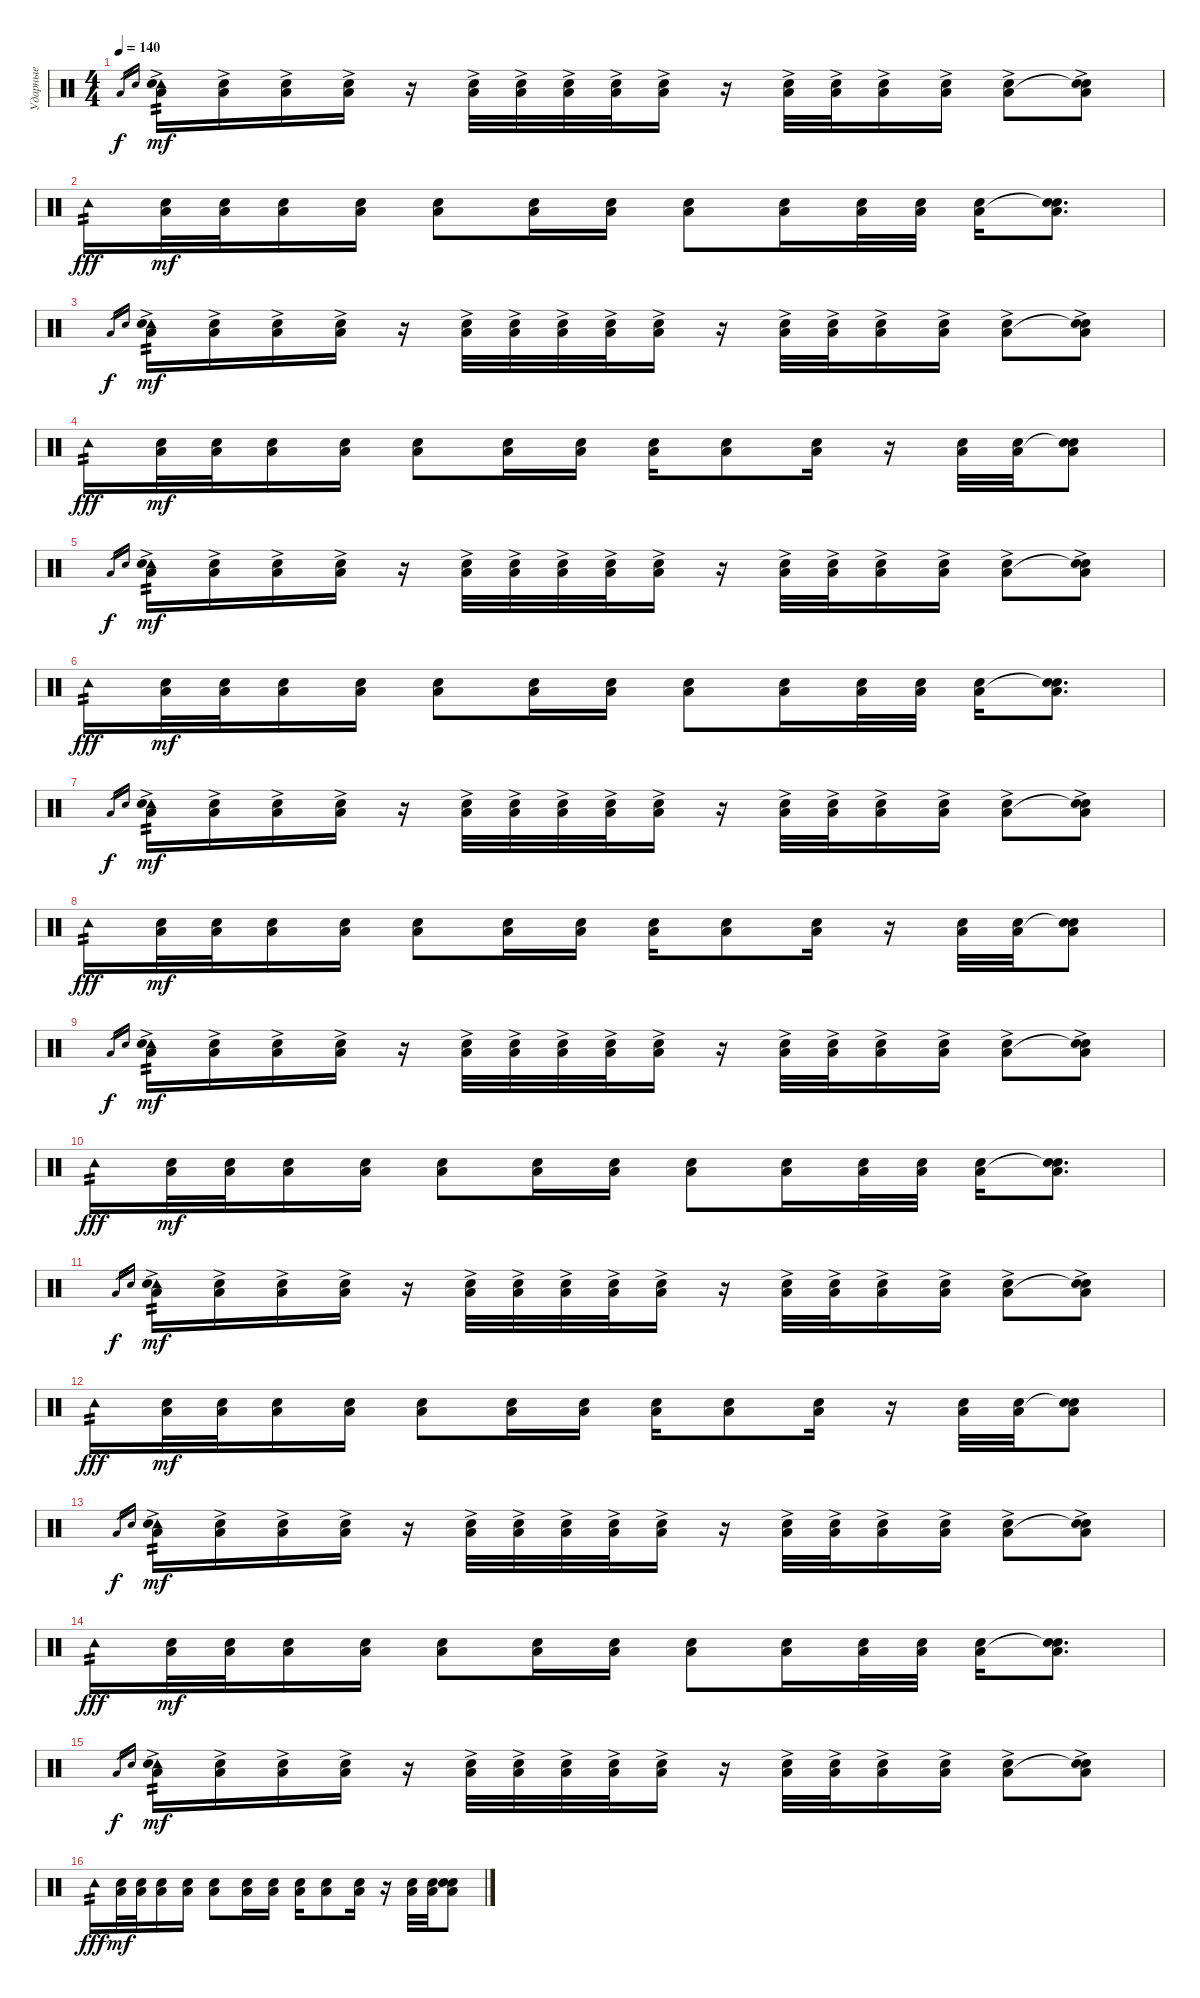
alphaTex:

\track ("Ударные" "Ударные") {instrument percussion}
\staff {score}
\articulation defaults
\ts (4 4)
\tempo 140
\clef neutral
\ks c "Low Tom (hit)".16{gr dy f} "Electric Snare (hit)".16{gr}
("Tambourine (hit)" "Low Tom (hit)"{ac} "Electric Snare (hit)").16{tp 2 dy mf} ("Low Tom (hit)"{ac} "Electric Snare (hit)").16 ("Low Tom (hit)"{ac} "Electric Snare (hit)").16 ("Low Tom (hit)"{ac} "Electric Snare (hit)").16 r.16 ("Low Tom (hit)"{ac} "Electric Snare (hit)").32 ("Low Tom (hit)"{ac} "Electric Snare (hit)").32 ("Low Tom (hit)"{ac} "Electric Snare (hit)").32 ("Low Tom (hit)"{ac} "Electric Snare (hit)").32 ("Low Tom (hit)"{ac} "Electric Snare (hit)").16 r.16 ("Low Tom (hit)"{ac} "Electric Snare (hit)").32 ("Low Tom (hit)"{ac} "Electric Snare (hit)").32 ("Low Tom (hit)"{ac} "Electric Snare (hit)").16 ("Low Tom (hit)"{ac} "Electric Snare (hit)").16 ("Low Tom (hit)"{ac} "Electric Snare (hit)").8 ("Snare (hit)"{t} "Low Tom (hit)"{ac} "Electric Snare (hit)").8 |
"Tambourine (hit)".16{tp 2 dy fff} ("Low Tom (hit)" "Electric Snare (hit)").32{dy mf} ("Low Tom (hit)" "Electric Snare (hit)").32 ("Low Tom (hit)" "Electric Snare (hit)").16 ("Low Tom (hit)" "Electric Snare (hit)").16 ("Low Tom (hit)" "Electric Snare (hit)").8 ("Low Tom (hit)" "Electric Snare (hit)").16 ("Low Tom (hit)" "Electric Snare (hit)").16 ("Low Tom (hit)" "Electric Snare (hit)").8 ("Low Tom (hit)" "Electric Snare (hit)").16 ("Low Tom (hit)" "Electric Snare (hit)").32 ("Low Tom (hit)" "Electric Snare (hit)").32 ("Low Tom (hit)" "Electric Snare (hit)").16 ("Snare (hit)"{t} "Low Tom (hit)" "Electric Snare (hit)").8{d} |
"Low Tom (hit)".16{gr dy f} "Electric Snare (hit)".16{gr} ("Tambourine (hit)" "Low Tom (hit)"{ac} "Electric Snare (hit)").16{tp 2 dy mf} ("Low Tom (hit)"{ac} "Electric Snare (hit)").16 ("Low Tom (hit)"{ac} "Electric Snare (hit)").16 ("Low Tom (hit)"{ac} "Electric Snare (hit)").16 r.16 ("Low Tom (hit)"{ac} "Electric Snare (hit)").32 ("Low Tom (hit)"{ac} "Electric Snare (hit)").32 ("Low Tom (hit)"{ac} "Electric Snare (hit)").32 ("Low Tom (hit)"{ac} "Electric Snare (hit)").32 ("Low Tom (hit)"{ac} "Electric Snare (hit)").16 r.16 ("Low Tom (hit)"{ac} "Electric Snare (hit)").32 ("Low Tom (hit)"{ac} "Electric Snare (hit)").32 ("Low Tom (hit)"{ac} "Electric Snare (hit)").16 ("Low Tom (hit)"{ac} "Electric Snare (hit)").16 ("Low Tom (hit)"{ac} "Electric Snare (hit)").8 ("Snare (hit)"{t} "Low Tom (hit)"{ac} "Electric Snare (hit)").8 |
"Tambourine (hit)".16{tp 2 dy fff} ("Low Tom (hit)" "Electric Snare (hit)").32{dy mf} ("Low Tom (hit)" "Electric Snare (hit)").32 ("Low Tom (hit)" "Electric Snare (hit)").16 ("Low Tom (hit)" "Electric Snare (hit)").16 ("Low Tom (hit)" "Electric Snare (hit)").8 ("Low Tom (hit)" "Electric Snare (hit)").16 ("Low Tom (hit)" "Electric Snare (hit)").16 ("Low Tom (hit)" "Electric Snare (hit)").16 ("Low Tom (hit)" "Electric Snare (hit)").8 ("Low Tom (hit)" "Electric Snare (hit)").16 r.16 ("Low Tom (hit)" "Electric Snare (hit)").32 ("Low Tom (hit)" "Electric Snare (hit)").32 ("Snare (hit)"{t} "Low Tom (hit)" "Electric Snare (hit)").8 |
"Low Tom (hit)".16{gr dy f} "Electric Snare (hit)".16{gr} ("Tambourine (hit)" "Low Tom (hit)"{ac} "Electric Snare (hit)").16{tp 2 dy mf} ("Low Tom (hit)"{ac} "Electric Snare (hit)").16 ("Low Tom (hit)"{ac} "Electric Snare (hit)").16 ("Low Tom (hit)"{ac} "Electric Snare (hit)").16 r.16 ("Low Tom (hit)"{ac} "Electric Snare (hit)").32 ("Low Tom (hit)"{ac} "Electric Snare (hit)").32 ("Low Tom (hit)"{ac} "Electric Snare (hit)").32 ("Low Tom (hit)"{ac} "Electric Snare (hit)").32 ("Low Tom (hit)"{ac} "Electric Snare (hit)").16 r.16 ("Low Tom (hit)"{ac} "Electric Snare (hit)").32 ("Low Tom (hit)"{ac} "Electric Snare (hit)").32 ("Low Tom (hit)"{ac} "Electric Snare (hit)").16 ("Low Tom (hit)"{ac} "Electric Snare (hit)").16 ("Low Tom (hit)"{ac} "Electric Snare (hit)").8 ("Snare (hit)"{t} "Low Tom (hit)"{ac} "Electric Snare (hit)").8 |
"Tambourine (hit)".16{tp 2 dy fff} ("Low Tom (hit)" "Electric Snare (hit)").32{dy mf} ("Low Tom (hit)" "Electric Snare (hit)").32 ("Low Tom (hit)" "Electric Snare (hit)").16 ("Low Tom (hit)" "Electric Snare (hit)").16 ("Low Tom (hit)" "Electric Snare (hit)").8 ("Low Tom (hit)" "Electric Snare (hit)").16 ("Low Tom (hit)" "Electric Snare (hit)").16 ("Low Tom (hit)" "Electric Snare (hit)").8 ("Low Tom (hit)" "Electric Snare (hit)").16 ("Low Tom (hit)" "Electric Snare (hit)").32 ("Low Tom (hit)" "Electric Snare (hit)").32 ("Low Tom (hit)" "Electric Snare (hit)").16 ("Snare (hit)"{t} "Low Tom (hit)" "Electric Snare (hit)").8{d} |
"Low Tom (hit)".16{gr dy f} "Electric Snare (hit)".16{gr} ("Tambourine (hit)" "Low Tom (hit)"{ac} "Electric Snare (hit)").16{tp 2 dy mf} ("Low Tom (hit)"{ac} "Electric Snare (hit)").16 ("Low Tom (hit)"{ac} "Electric Snare (hit)").16 ("Low Tom (hit)"{ac} "Electric Snare (hit)").16 r.16 ("Low Tom (hit)"{ac} "Electric Snare (hit)").32 ("Low Tom (hit)"{ac} "Electric Snare (hit)").32 ("Low Tom (hit)"{ac} "Electric Snare (hit)").32 ("Low Tom (hit)"{ac} "Electric Snare (hit)").32 ("Low Tom (hit)"{ac} "Electric Snare (hit)").16 r.16 ("Low Tom (hit)"{ac} "Electric Snare (hit)").32 ("Low Tom (hit)"{ac} "Electric Snare (hit)").32 ("Low Tom (hit)"{ac} "Electric Snare (hit)").16 ("Low Tom (hit)"{ac} "Electric Snare (hit)").16 ("Low Tom (hit)"{ac} "Electric Snare (hit)").8 ("Snare (hit)"{t} "Low Tom (hit)"{ac} "Electric Snare (hit)").8 |
"Tambourine (hit)".16{tp 2 dy fff} ("Low Tom (hit)" "Electric Snare (hit)").32{dy mf} ("Low Tom (hit)" "Electric Snare (hit)").32 ("Low Tom (hit)" "Electric Snare (hit)").16 ("Low Tom (hit)" "Electric Snare (hit)").16 ("Low Tom (hit)" "Electric Snare (hit)").8 ("Low Tom (hit)" "Electric Snare (hit)").16 ("Low Tom (hit)" "Electric Snare (hit)").16 ("Low Tom (hit)" "Electric Snare (hit)").16 ("Low Tom (hit)" "Electric Snare (hit)").8 ("Low Tom (hit)" "Electric Snare (hit)").16 r.16 ("Low Tom (hit)" "Electric Snare (hit)").32 ("Low Tom (hit)" "Electric Snare (hit)").32 ("Snare (hit)"{t} "Low Tom (hit)" "Electric Snare (hit)").8 |
"Low Tom (hit)".16{gr dy f} "Electric Snare (hit)".16{gr} ("Tambourine (hit)" "Low Tom (hit)"{ac} "Electric Snare (hit)").16{tp 2 dy mf} ("Low Tom (hit)"{ac} "Electric Snare (hit)").16 ("Low Tom (hit)"{ac} "Electric Snare (hit)").16 ("Low Tom (hit)"{ac} "Electric Snare (hit)").16 r.16 ("Low Tom (hit)"{ac} "Electric Snare (hit)").32 ("Low Tom (hit)"{ac} "Electric Snare (hit)").32 ("Low Tom (hit)"{ac} "Electric Snare (hit)").32 ("Low Tom (hit)"{ac} "Electric Snare (hit)").32 ("Low Tom (hit)"{ac} "Electric Snare (hit)").16 r.16 ("Low Tom (hit)"{ac} "Electric Snare (hit)").32 ("Low Tom (hit)"{ac} "Electric Snare (hit)").32 ("Low Tom (hit)"{ac} "Electric Snare (hit)").16 ("Low Tom (hit)"{ac} "Electric Snare (hit)").16 ("Low Tom (hit)"{ac} "Electric Snare (hit)").8 ("Snare (hit)"{t} "Low Tom (hit)"{ac} "Electric Snare (hit)").8 |
"Tambourine (hit)".16{tp 2 dy fff} ("Low Tom (hit)" "Electric Snare (hit)").32{dy mf} ("Low Tom (hit)" "Electric Snare (hit)").32 ("Low Tom (hit)" "Electric Snare (hit)").16 ("Low Tom (hit)" "Electric Snare (hit)").16 ("Low Tom (hit)" "Electric Snare (hit)").8 ("Low Tom (hit)" "Electric Snare (hit)").16 ("Low Tom (hit)" "Electric Snare (hit)").16 ("Low Tom (hit)" "Electric Snare (hit)").8 ("Low Tom (hit)" "Electric Snare (hit)").16 ("Low Tom (hit)" "Electric Snare (hit)").32 ("Low Tom (hit)" "Electric Snare (hit)").32 ("Low Tom (hit)" "Electric Snare (hit)").16 ("Snare (hit)"{t} "Low Tom (hit)" "Electric Snare (hit)").8{d} |
"Low Tom (hit)".16{gr dy f} "Electric Snare (hit)".16{gr} ("Tambourine (hit)" "Low Tom (hit)"{ac} "Electric Snare (hit)").16{tp 2 dy mf} ("Low Tom (hit)"{ac} "Electric Snare (hit)").16 ("Low Tom (hit)"{ac} "Electric Snare (hit)").16 ("Low Tom (hit)"{ac} "Electric Snare (hit)").16 r.16 ("Low Tom (hit)"{ac} "Electric Snare (hit)").32 ("Low Tom (hit)"{ac} "Electric Snare (hit)").32 ("Low Tom (hit)"{ac} "Electric Snare (hit)").32 ("Low Tom (hit)"{ac} "Electric Snare (hit)").32 ("Low Tom (hit)"{ac} "Electric Snare (hit)").16 r.16 ("Low Tom (hit)"{ac} "Electric Snare (hit)").32 ("Low Tom (hit)"{ac} "Electric Snare (hit)").32 ("Low Tom (hit)"{ac} "Electric Snare (hit)").16 ("Low Tom (hit)"{ac} "Electric Snare (hit)").16 ("Low Tom (hit)"{ac} "Electric Snare (hit)").8 ("Snare (hit)"{t} "Low Tom (hit)"{ac} "Electric Snare (hit)").8 |
"Tambourine (hit)".16{tp 2 dy fff} ("Low Tom (hit)" "Electric Snare (hit)").32{dy mf} ("Low Tom (hit)" "Electric Snare (hit)").32 ("Low Tom (hit)" "Electric Snare (hit)").16 ("Low Tom (hit)" "Electric Snare (hit)").16 ("Low Tom (hit)" "Electric Snare (hit)").8 ("Low Tom (hit)" "Electric Snare (hit)").16 ("Low Tom (hit)" "Electric Snare (hit)").16 ("Low Tom (hit)" "Electric Snare (hit)").16 ("Low Tom (hit)" "Electric Snare (hit)").8 ("Low Tom (hit)" "Electric Snare (hit)").16 r.16 ("Low Tom (hit)" "Electric Snare (hit)").32 ("Low Tom (hit)" "Electric Snare (hit)").32 ("Snare (hit)"{t} "Low Tom (hit)" "Electric Snare (hit)").8 |
"Low Tom (hit)".16{gr dy f} "Electric Snare (hit)".16{gr} ("Tambourine (hit)" "Low Tom (hit)"{ac} "Electric Snare (hit)").16{tp 2 dy mf} ("Low Tom (hit)"{ac} "Electric Snare (hit)").16 ("Low Tom (hit)"{ac} "Electric Snare (hit)").16 ("Low Tom (hit)"{ac} "Electric Snare (hit)").16 r.16 ("Low Tom (hit)"{ac} "Electric Snare (hit)").32 ("Low Tom (hit)"{ac} "Electric Snare (hit)").32 ("Low Tom (hit)"{ac} "Electric Snare (hit)").32 ("Low Tom (hit)"{ac} "Electric Snare (hit)").32 ("Low Tom (hit)"{ac} "Electric Snare (hit)").16 r.16 ("Low Tom (hit)"{ac} "Electric Snare (hit)").32 ("Low Tom (hit)"{ac} "Electric Snare (hit)").32 ("Low Tom (hit)"{ac} "Electric Snare (hit)").16 ("Low Tom (hit)"{ac} "Electric Snare (hit)").16 ("Low Tom (hit)"{ac} "Electric Snare (hit)").8 ("Snare (hit)"{t} "Low Tom (hit)"{ac} "Electric Snare (hit)").8 |
"Tambourine (hit)".16{tp 2 dy fff} ("Low Tom (hit)" "Electric Snare (hit)").32{dy mf} ("Low Tom (hit)" "Electric Snare (hit)").32 ("Low Tom (hit)" "Electric Snare (hit)").16 ("Low Tom (hit)" "Electric Snare (hit)").16 ("Low Tom (hit)" "Electric Snare (hit)").8 ("Low Tom (hit)" "Electric Snare (hit)").16 ("Low Tom (hit)" "Electric Snare (hit)").16 ("Low Tom (hit)" "Electric Snare (hit)").8 ("Low Tom (hit)" "Electric Snare (hit)").16 ("Low Tom (hit)" "Electric Snare (hit)").32 ("Low Tom (hit)" "Electric Snare (hit)").32 ("Low Tom (hit)" "Electric Snare (hit)").16 ("Snare (hit)"{t} "Low Tom (hit)" "Electric Snare (hit)").8{d} |
"Low Tom (hit)".16{gr dy f} "Electric Snare (hit)".16{gr} ("Tambourine (hit)" "Low Tom (hit)"{ac} "Electric Snare (hit)").16{tp 2 dy mf} ("Low Tom (hit)"{ac} "Electric Snare (hit)").16 ("Low Tom (hit)"{ac} "Electric Snare (hit)").16 ("Low Tom (hit)"{ac} "Electric Snare (hit)").16 r.16 ("Low Tom (hit)"{ac} "Electric Snare (hit)").32 ("Low Tom (hit)"{ac} "Electric Snare (hit)").32 ("Low Tom (hit)"{ac} "Electric Snare (hit)").32 ("Low Tom (hit)"{ac} "Electric Snare (hit)").32 ("Low Tom (hit)"{ac} "Electric Snare (hit)").16 r.16 ("Low Tom (hit)"{ac} "Electric Snare (hit)").32 ("Low Tom (hit)"{ac} "Electric Snare (hit)").32 ("Low Tom (hit)"{ac} "Electric Snare (hit)").16 ("Low Tom (hit)"{ac} "Electric Snare (hit)").16 ("Low Tom (hit)"{ac} "Electric Snare (hit)").8 ("Snare (hit)"{t} "Low Tom (hit)"{ac} "Electric Snare (hit)").8 |
"Tambourine (hit)".16{tp 2 dy fff} ("Low Tom (hit)" "Electric Snare (hit)").32{dy mf} ("Low Tom (hit)" "Electric Snare (hit)").32 ("Low Tom (hit)" "Electric Snare (hit)").16 ("Low Tom (hit)" "Electric Snare (hit)").16 ("Low Tom (hit)" "Electric Snare (hit)").8 ("Low Tom (hit)" "Electric Snare (hit)").16 ("Low Tom (hit)" "Electric Snare (hit)").16 ("Low Tom (hit)" "Electric Snare (hit)").16 ("Low Tom (hit)" "Electric Snare (hit)").8 ("Low Tom (hit)" "Electric Snare (hit)").16 r.16 ("Low Tom (hit)" "Electric Snare (hit)").32 ("Low Tom (hit)" "Electric Snare (hit)").32 ("Snare (hit)"{t} "Low Tom (hit)" "Electric Snare (hit)").8
